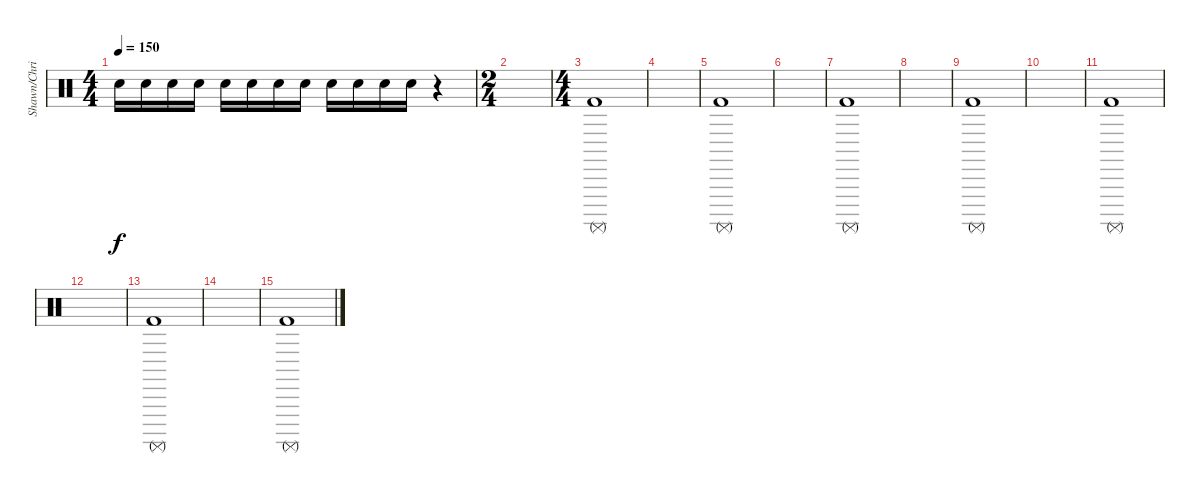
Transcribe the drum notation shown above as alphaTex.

\track ("Shawn/Chris" "Shawn/Chri") {instrument percussion}
\staff {score}
\articulation defaults
\ts (4 4)
\tempo 150
\clef neutral
\ks c "Snare (hit) 2".16{dy f} "Snare (hit) 2".16 "Snare (hit) 2".16 "Snare (hit) 2".16 "Snare (hit) 2".16 "Snare (hit) 2".16 "Snare (hit) 2".16 "Snare (hit) 2".16 "Snare (hit) 2".16 "Snare (hit) 2".16 "Snare (hit) 2".16 "Snare (hit) 2".16
r.4 |
\ts (2 4)
|
\ts (4 4)
("Surdo (mute)" "Kick (hit) 2").1 |
|
("Surdo (mute)" "Kick (hit) 2").1 |
|
("Surdo (mute)" "Kick (hit) 2").1 |
|
("Surdo (mute)" "Kick (hit) 2").1 |
|
("Surdo (mute)" "Kick (hit) 2").1 |
|
("Surdo (mute)" "Kick (hit) 2").1 |
|
("Surdo (mute)" "Kick (hit) 2").1
